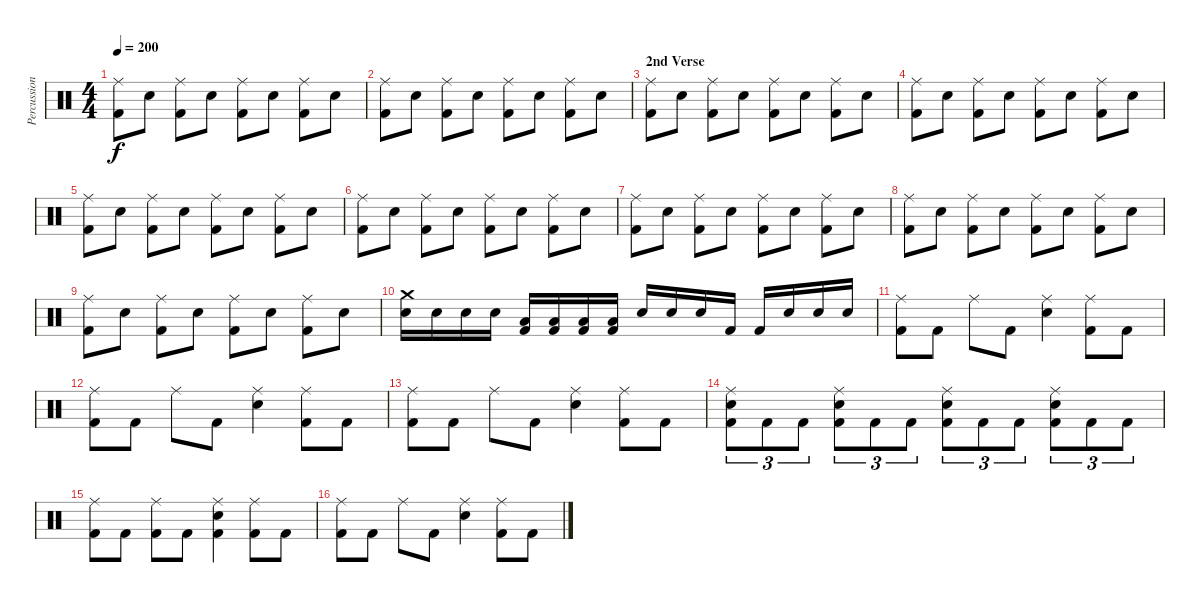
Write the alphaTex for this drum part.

\track ("Percussion" "Percussion") {instrument percussion}
\staff {score}
\articulation defaults
\ts (4 4)
\tempo 200
\clef neutral
\ks c
("Ride (middle)" "Kick (hit) 2").8{dy f} "Electric Snare (hit)".8 ("Ride (middle)" "Kick (hit) 2").8 "Electric Snare (hit)".8 ("Ride (middle)" "Kick (hit) 2").8 "Electric Snare (hit)".8 ("Ride (middle)" "Kick (hit) 2").8 "Electric Snare (hit)".8 |
("Ride (middle)" "Kick (hit) 2").8 "Electric Snare (hit)".8 ("Ride (middle)" "Kick (hit) 2").8 "Electric Snare (hit)".8 ("Ride (middle)" "Kick (hit) 2").8 "Electric Snare (hit)".8 ("Ride (middle)" "Kick (hit) 2").8 "Electric Snare (hit)".8 |
\section ("" "2nd Verse")
("Ride (middle)" "Kick (hit) 2").8 "Electric Snare (hit)".8 ("Ride (middle)" "Kick (hit) 2").8 "Electric Snare (hit)".8 ("Ride (middle)" "Kick (hit) 2").8 "Electric Snare (hit)".8 ("Ride (middle)" "Kick (hit) 2").8 "Electric Snare (hit)".8 |
("Ride (middle)" "Kick (hit) 2").8 "Electric Snare (hit)".8 ("Ride (middle)" "Kick (hit) 2").8 "Electric Snare (hit)".8 ("Ride (middle)" "Kick (hit) 2").8 "Electric Snare (hit)".8 ("Ride (middle)" "Kick (hit) 2").8 "Electric Snare (hit)".8 |
("Ride (middle)" "Kick (hit) 2").8 "Electric Snare (hit)".8 ("Ride (middle)" "Kick (hit) 2").8 "Electric Snare (hit)".8 ("Ride (middle)" "Kick (hit) 2").8 "Electric Snare (hit)".8 ("Ride (middle)" "Kick (hit) 2").8 "Electric Snare (hit)".8 |
("Ride (middle)" "Kick (hit) 2").8 "Electric Snare (hit)".8 ("Ride (middle)" "Kick (hit) 2").8 "Electric Snare (hit)".8 ("Ride (middle)" "Kick (hit) 2").8 "Electric Snare (hit)".8 ("Ride (middle)" "Kick (hit) 2").8 "Electric Snare (hit)".8 |
("Ride (middle)" "Kick (hit) 2").8 "Electric Snare (hit)".8 ("Ride (middle)" "Kick (hit) 2").8 "Electric Snare (hit)".8 ("Ride (middle)" "Kick (hit) 2").8 "Electric Snare (hit)".8 ("Ride (middle)" "Kick (hit) 2").8 "Electric Snare (hit)".8 |
("Ride (middle)" "Kick (hit) 2").8 "Electric Snare (hit)".8 ("Ride (middle)" "Kick (hit) 2").8 "Electric Snare (hit)".8 ("Ride (middle)" "Kick (hit) 2").8 "Electric Snare (hit)".8 ("Ride (middle)" "Kick (hit) 2").8 "Electric Snare (hit)".8 |
("Ride (middle)" "Kick (hit) 2").8 "Electric Snare (hit)".8 ("Ride (middle)" "Kick (hit) 2").8 "Electric Snare (hit)".8 ("Ride (middle)" "Kick (hit) 2").8 "Electric Snare (hit)".8 ("Ride (middle)" "Kick (hit) 2").8 "Electric Snare (hit)".8 |
("Crash medium (hit)" "Electric Snare (hit)").16 "Electric Snare (hit)".16 "Electric Snare (hit)".16 "Electric Snare (hit)".16 ("Low Floor Tom (hit)" "Kick (hit) 2").16 ("Low Floor Tom (hit)" "Kick (hit) 2").16 ("Low Floor Tom (hit)" "Kick (hit) 2").16 ("Low Floor Tom (hit)" "Kick (hit) 2").16 "Electric Snare (hit)".16 "Electric Snare (hit)".16 "Electric Snare (hit)".16 "Kick (hit) 2".16 "Kick (hit) 2".16 "Electric Snare (hit)".16 "Electric Snare (hit)".16 "Electric Snare (hit)".16 |
("Ride (middle)" "Kick (hit) 2").8 "Kick (hit) 2".8 "Ride (middle)".8 "Kick (hit) 2".8 ("Ride (middle)" "Electric Snare (hit)").4 ("Ride (middle)" "Kick (hit) 2").8 "Kick (hit) 2".8 |
("Ride (middle)" "Kick (hit) 2").8 "Kick (hit) 2".8 "Ride (middle)".8 "Kick (hit) 2".8 ("Ride (middle)" "Electric Snare (hit)").4 ("Ride (middle)" "Kick (hit) 2").8 "Kick (hit) 2".8 |
("Ride (middle)" "Kick (hit) 2").8 "Kick (hit) 2".8 "Ride (middle)".8 "Kick (hit) 2".8 ("Ride (middle)" "Electric Snare (hit)").4 ("Ride (middle)" "Kick (hit) 2").8 "Kick (hit) 2".8 |
("Ride (middle)" "Electric Snare (hit)" "Kick (hit) 2").8{tu (3 2)} "Kick (hit) 2".8{tu (3 2)} "Kick (hit) 2".8{tu (3 2)} ("Ride (middle)" "Electric Snare (hit)" "Kick (hit) 2").8{tu (3 2)} "Kick (hit) 2".8{tu (3 2)} "Kick (hit) 2".8{tu (3 2)} ("Ride (middle)" "Electric Snare (hit)" "Kick (hit) 2").8{tu (3 2)} "Kick (hit) 2".8{tu (3 2)} "Kick (hit) 2".8{tu (3 2)} ("Ride (middle)" "Electric Snare (hit)" "Kick (hit) 2").8{tu (3 2)} "Kick (hit) 2".8{tu (3 2)} "Kick (hit) 2".8{tu (3 2)} |
("Ride (middle)" "Kick (hit) 2").8 "Kick (hit) 2".8 ("Ride (middle)" "Kick (hit) 2").8 "Kick (hit) 2".8 ("Ride (middle)" "Electric Snare (hit)" "Kick (hit) 2").4 ("Ride (middle)" "Kick (hit) 2").8 "Kick (hit) 2".8 |
("Ride (middle)" "Kick (hit) 2").8 "Kick (hit) 2".8 "Ride (middle)".8 "Kick (hit) 2".8 ("Ride (middle)" "Electric Snare (hit)").4 ("Ride (middle)" "Kick (hit) 2").8 "Kick (hit) 2".8
